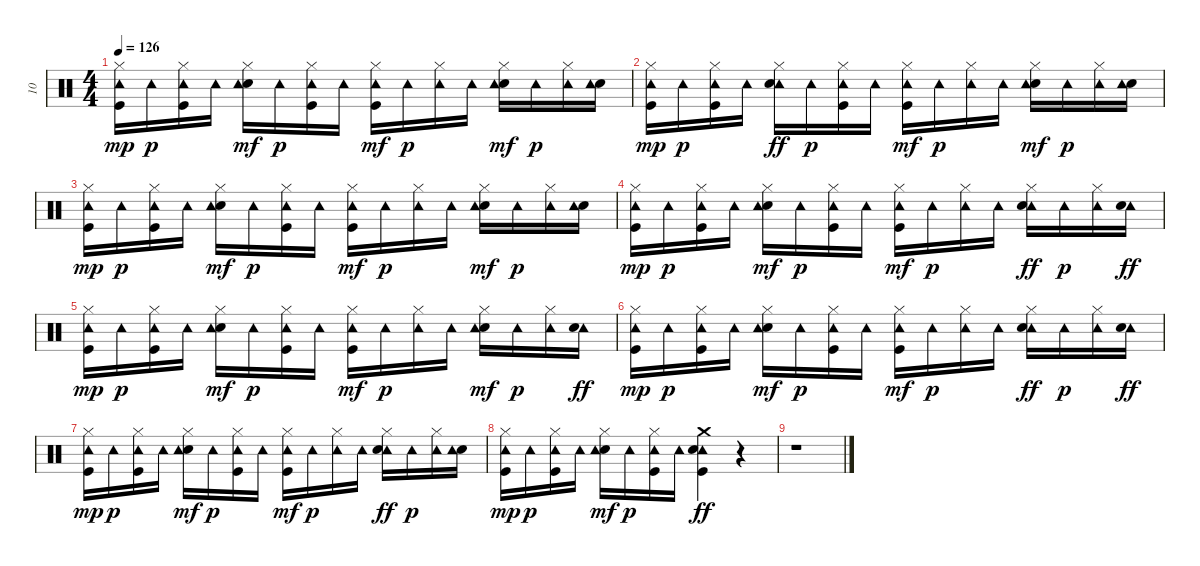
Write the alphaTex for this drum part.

\track ("10" "10") {instrument percussion}
\staff {score}
\articulation defaults
\ts (4 4)
\tempo 126
\clef neutral
\ks c
("Hi-Hat (closed)" "Tambourine (hit)" "Kick (hit)").16{dy mp} "Tambourine (hit)".16{dy p} ("Kick (hit)" "Tambourine (hit)" "Hi-Hat (closed)").16 "Tambourine (hit)".16 ("Electric Snare (hit)" "Hi-Hat (closed)" "Tambourine (hit)").16{dy mf} "Tambourine (hit)".16{dy p} ("Kick (hit)" "Hi-Hat (closed)" "Tambourine (hit)").16 "Tambourine (hit)".16 ("Tambourine (hit)" "Kick (hit)" "Hi-Hat (closed)").16{dy mf} "Tambourine (hit)".16{dy p} ("Tambourine (hit)" "Hi-Hat (closed)").16 "Tambourine (hit)".16 ("Electric Snare (hit)" "Tambourine (hit)" "Hi-Hat (closed)").16{dy mf} "Tambourine (hit)".16{dy p} ("Hi-Hat (closed)" "Tambourine (hit)").16 ("Electric Snare (hit)" "Tambourine (hit)").16 |
("Hi-Hat (closed)" "Tambourine (hit)" "Kick (hit)").16{dy mp} "Tambourine (hit)".16{dy p} ("Tambourine (hit)" "Hi-Hat (closed)" "Kick (hit)").16 "Tambourine (hit)".16 ("Tambourine (hit)" "Hi-Hat (closed)" "Electric Snare (hit)").16{dy ff} "Tambourine (hit)".16{dy p} ("Kick (hit)" "Hi-Hat (closed)" "Tambourine (hit)").16 "Tambourine (hit)".16 ("Tambourine (hit)" "Kick (hit)" "Hi-Hat (closed)").16{dy mf} "Tambourine (hit)".16{dy p} ("Tambourine (hit)" "Hi-Hat (closed)").16 "Tambourine (hit)".16 ("Electric Snare (hit)" "Hi-Hat (closed)" "Tambourine (hit)").16{dy mf} "Tambourine (hit)".16{dy p} ("Tambourine (hit)" "Hi-Hat (closed)").16 ("Electric Snare (hit)" "Tambourine (hit)").16 |
("Tambourine (hit)" "Hi-Hat (closed)" "Kick (hit)").16{dy mp} "Tambourine (hit)".16{dy p} ("Kick (hit)" "Tambourine (hit)" "Hi-Hat (closed)").16 "Tambourine (hit)".16 ("Electric Snare (hit)" "Tambourine (hit)" "Hi-Hat (closed)").16{dy mf} "Tambourine (hit)".16{dy p} ("Hi-Hat (closed)" "Kick (hit)" "Tambourine (hit)").16 "Tambourine (hit)".16 ("Tambourine (hit)" "Kick (hit)" "Hi-Hat (closed)").16{dy mf} "Tambourine (hit)".16{dy p} ("Hi-Hat (closed)" "Tambourine (hit)").16 "Tambourine (hit)".16 ("Hi-Hat (closed)" "Electric Snare (hit)" "Tambourine (hit)").16{dy mf} "Tambourine (hit)".16{dy p} ("Hi-Hat (closed)" "Tambourine (hit)").16 ("Electric Snare (hit)" "Tambourine (hit)").16 |
("Tambourine (hit)" "Hi-Hat (closed)" "Kick (hit)").16{dy mp} "Tambourine (hit)".16{dy p} ("Kick (hit)" "Hi-Hat (closed)" "Tambourine (hit)").16 "Tambourine (hit)".16 ("Hi-Hat (closed)" "Electric Snare (hit)" "Tambourine (hit)").16{dy mf} "Tambourine (hit)".16{dy p} ("Tambourine (hit)" "Hi-Hat (closed)" "Kick (hit)").16 "Tambourine (hit)".16 ("Tambourine (hit)" "Kick (hit)" "Hi-Hat (closed)").16{dy mf} "Tambourine (hit)".16{dy p} ("Hi-Hat (closed)" "Tambourine (hit)").16 "Tambourine (hit)".16 ("Hi-Hat (closed)" "Tambourine (hit)" "Electric Snare (hit)").16{dy ff} "Tambourine (hit)".16{dy p} ("Tambourine (hit)" "Hi-Hat (closed)").16 ("Tambourine (hit)" "Electric Snare (hit)").16{dy ff} |
("Kick (hit)" "Hi-Hat (closed)" "Tambourine (hit)").16{dy mp} "Tambourine (hit)".16{dy p} ("Hi-Hat (closed)" "Tambourine (hit)" "Kick (hit)").16 "Tambourine (hit)".16 ("Electric Snare (hit)" "Tambourine (hit)" "Hi-Hat (closed)").16{dy mf} "Tambourine (hit)".16{dy p} ("Hi-Hat (closed)" "Tambourine (hit)" "Kick (hit)").16 "Tambourine (hit)".16 ("Tambourine (hit)" "Kick (hit)" "Hi-Hat (closed)").16{dy mf} "Tambourine (hit)".16{dy p} ("Tambourine (hit)" "Hi-Hat (closed)").16 "Tambourine (hit)".16 ("Hi-Hat (closed)" "Electric Snare (hit)" "Tambourine (hit)").16{dy mf} "Tambourine (hit)".16{dy p} ("Tambourine (hit)" "Hi-Hat (closed)").16 ("Tambourine (hit)" "Electric Snare (hit)").16{dy ff} |
("Kick (hit)" "Hi-Hat (closed)" "Tambourine (hit)").16{dy mp} "Tambourine (hit)".16{dy p} ("Hi-Hat (closed)" "Tambourine (hit)" "Kick (hit)").16 "Tambourine (hit)".16 ("Hi-Hat (closed)" "Electric Snare (hit)" "Tambourine (hit)").16{dy mf} "Tambourine (hit)".16{dy p} ("Hi-Hat (closed)" "Kick (hit)" "Tambourine (hit)").16 "Tambourine (hit)".16 ("Tambourine (hit)" "Kick (hit)" "Hi-Hat (closed)").16{dy mf} "Tambourine (hit)".16{dy p} ("Tambourine (hit)" "Hi-Hat (closed)").16 "Tambourine (hit)".16 ("Tambourine (hit)" "Hi-Hat (closed)" "Electric Snare (hit)").16{dy ff} "Tambourine (hit)".16{dy p} ("Tambourine (hit)" "Hi-Hat (closed)").16 ("Tambourine (hit)" "Electric Snare (hit)").16{dy ff} |
("Kick (hit)" "Tambourine (hit)" "Hi-Hat (closed)").16{dy mp} "Tambourine (hit)".16{dy p} ("Kick (hit)" "Hi-Hat (closed)" "Tambourine (hit)").16 "Tambourine (hit)".16 ("Electric Snare (hit)" "Tambourine (hit)" "Hi-Hat (closed)").16{dy mf} "Tambourine (hit)".16{dy p} ("Tambourine (hit)" "Hi-Hat (closed)" "Kick (hit)").16 "Tambourine (hit)".16 ("Tambourine (hit)" "Kick (hit)" "Hi-Hat (closed)").16{dy mf} "Tambourine (hit)".16{dy p} ("Tambourine (hit)" "Hi-Hat (closed)").16 "Tambourine (hit)".16 ("Tambourine (hit)" "Hi-Hat (closed)" "Electric Snare (hit)").16{dy ff} "Tambourine (hit)".16{dy p} ("Tambourine (hit)" "Hi-Hat (closed)").16 ("Electric Snare (hit)" "Tambourine (hit)").16 |
("Kick (hit)" "Tambourine (hit)" "Hi-Hat (closed)").16{dy mp} "Tambourine (hit)".16{dy p} ("Hi-Hat (closed)" "Kick (hit)" "Tambourine (hit)").16 "Tambourine (hit)".16 ("Electric Snare (hit)" "Tambourine (hit)" "Hi-Hat (closed)").16{dy mf} "Tambourine (hit)".16{dy p} ("Hi-Hat (closed)" "Tambourine (hit)" "Kick (hit)").16 "Tambourine (hit)".16 ("Tambourine (hit)" "Kick (hit)" "Crash medium (hit)" "Electric Snare (hit)").4{dy ff} r.4 |
r.1
